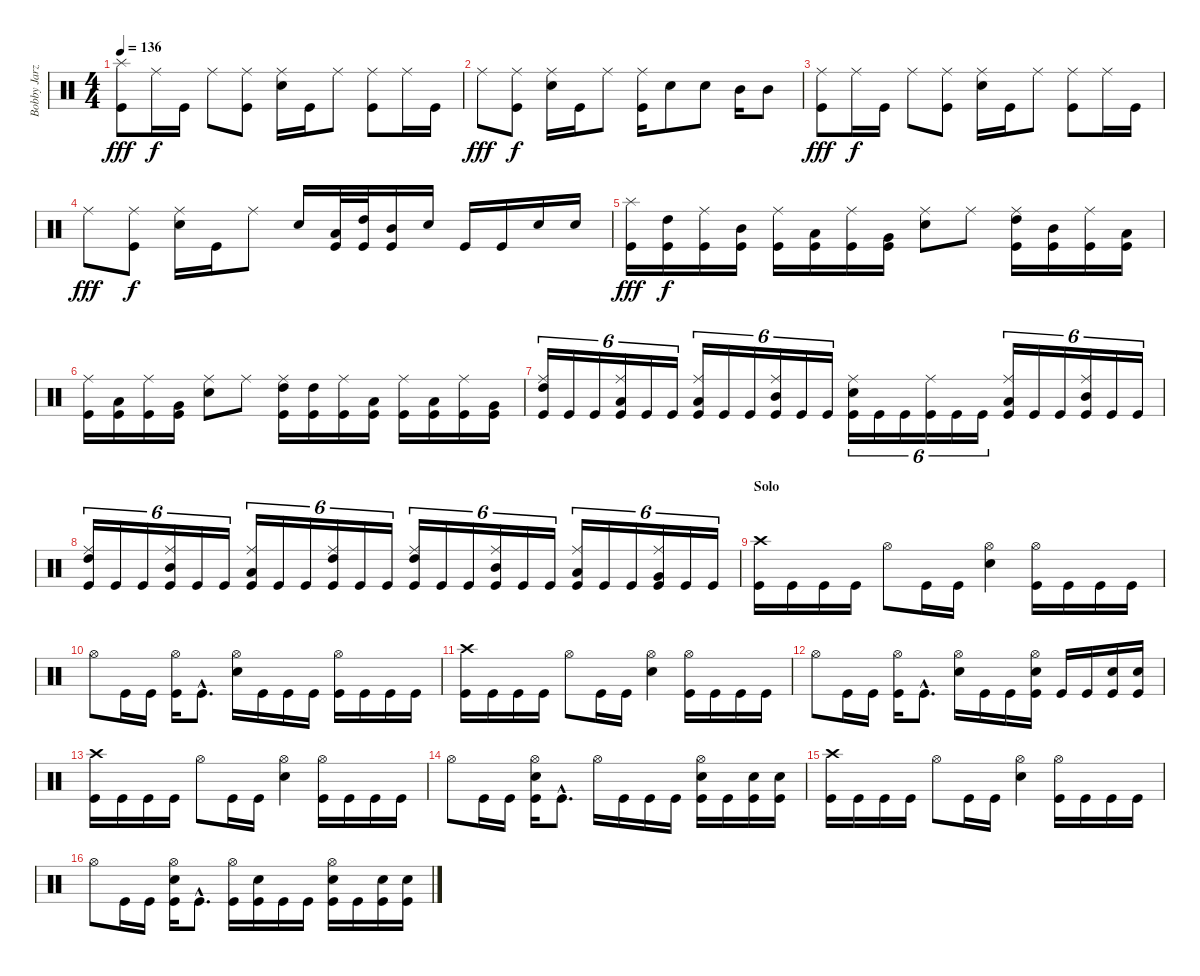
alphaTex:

\track ("Bobby Jarzombek" "Bobby Jarz") {instrument percussion}
\staff {score}
\articulation defaults
\ts (4 4)
\tempo 136
\clef neutral
\ks c
("Splash (hit)" "Kick (hit)").8{dy fff} "Ride (middle)".16{dy f} "Kick (hit)".16 "Ride (middle)".8 ("Ride (middle)" "Kick (hit)").8 ("Ride (middle)" "Electric Snare (hit)").16 "Kick (hit)".16 "Ride (middle)".8 ("Ride (middle)" "Kick (hit)").8 "Ride (middle)".16 "Kick (hit)".16 |
"Ride (middle)".8{dy fff} ("Ride (middle)" "Kick (hit)").8{dy f} ("Ride (middle)" "Electric Snare (hit)").16 "Kick (hit)".16 "Ride (middle)".8 ("Ride (middle)" "Kick (hit)").16 "Electric Snare (hit)".8 "Electric Snare (hit)".8 "Mid Tom (hit)".16 "Mid Tom (hit)".8 |
("Ride (middle)" "Kick (hit)").8{dy fff} "Ride (middle)".16{dy f} "Kick (hit)".16 "Ride (middle)".8 ("Ride (middle)" "Kick (hit)").8 ("Ride (middle)" "Electric Snare (hit)").16 "Kick (hit)".16 "Ride (middle)".8 ("Ride (middle)" "Kick (hit)").8 "Ride (middle)".16 "Kick (hit)".16 |
"Ride (middle)".8{dy fff} ("Ride (middle)" "Kick (hit)").8{dy f} ("Ride (middle)" "Electric Snare (hit)").16 "Kick (hit)".16 "Ride (middle)".8 "Electric Snare (hit)".16 ("Low Tom (hit)" "Kick (hit)").32 ("High Tom (hit)" "Kick (hit)").32 ("Mid Tom (hit)" "Kick (hit)").16 "Electric Snare (hit)".16 "Kick (hit)".16 "Kick (hit)".16 "Electric Snare (hit)".16 "Electric Snare (hit)".16 |
("Splash (hit)" "Kick (hit)").16{dy fff} ("High Tom (hit)" "Kick (hit)").16{dy f} ("Ride (middle)" "Kick (hit)").16 ("Mid Tom (hit)" "Kick (hit)").16 ("Ride (middle)" "Kick (hit)").16 ("Low Tom (hit)" "Kick (hit)").16 ("Ride (middle)" "Kick (hit)").16 ("Very Low Tom (hit)" "Kick (hit)").16 ("Ride (middle)" "Electric Snare (hit)").8 "Ride (middle)".8 ("Ride (middle)" "High Tom (hit)" "Kick (hit)").16 ("Mid Tom (hit)" "Kick (hit)").16 ("Ride (middle)" "Kick (hit)").16 ("Low Tom (hit)" "Kick (hit)").16 |
("Ride (middle)" "Kick (hit)").16 ("Low Tom (hit)" "Kick (hit)").16 ("Ride (middle)" "Kick (hit)").16 ("Very Low Tom (hit)" "Kick (hit)").16 ("Ride (middle)" "Electric Snare (hit)").8 "Ride (middle)".8 ("Ride (middle)" "High Tom (hit)" "Kick (hit)").16 ("High Tom (hit)" "Kick (hit)").16 ("Ride (middle)" "Kick (hit)").16 ("Low Tom (hit)" "Kick (hit)").16 ("Ride (middle)" "Kick (hit)").16 ("Low Tom (hit)" "Kick (hit)").16 ("Ride (middle)" "Kick (hit)").16 ("Very Low Tom (hit)" "Kick (hit)").16 |
("Ride (middle)" "High Tom (hit)" "Kick (hit)").16{tu (6 4)} "Kick (hit)".16{tu (6 4)} "Kick (hit)".16{tu (6 4)} ("Ride (middle)" "Low Tom (hit)" "Kick (hit)").16{tu (6 4)} "Kick (hit)".16{tu (6 4)} "Kick (hit)".16{tu (6 4)} ("Ride (middle)" "Low Tom (hit)" "Kick (hit)").16{tu (6 4)} "Kick (hit)".16{tu (6 4)} "Kick (hit)".16{tu (6 4)} ("Ride (middle)" "Mid Tom (hit)" "Kick (hit)").16{tu (6 4)} "Kick (hit)".16{tu (6 4)} "Kick (hit)".16{tu (6 4)} ("Ride (middle)" "Electric Snare (hit)" "Kick (hit)").16{tu (6 4)} "Kick (hit)".16{tu (6 4)} "Kick (hit)".16{tu (6 4)} ("Ride (middle)" "Kick (hit)").16{tu (6 4)} "Kick (hit)".16{tu (6 4)} "Kick (hit)".16{tu (6 4)} ("Ride (middle)" "Low Tom (hit)" "Kick (hit)").16{tu (6 4)} "Kick (hit)".16{tu (6 4)} "Kick (hit)".16{tu (6 4)} ("Ride (middle)" "Mid Tom (hit)" "Kick (hit)").16{tu (6 4)} "Kick (hit)".16{tu (6 4)} "Kick (hit)".16{tu (6 4)} |
("Ride (middle)" "High Tom (hit)" "Kick (hit)").16{tu (6 4)} "Kick (hit)".16{tu (6 4)} "Kick (hit)".16{tu (6 4)} ("Ride (middle)" "Mid Tom (hit)" "Kick (hit)").16{tu (6 4)} "Kick (hit)".16{tu (6 4)} "Kick (hit)".16{tu (6 4)} ("Ride (middle)" "Low Tom (hit)" "Kick (hit)").16{tu (6 4)} "Kick (hit)".16{tu (6 4)} "Kick (hit)".16{tu (6 4)} ("Ride (middle)" "High Tom (hit)" "Kick (hit)").16{tu (6 4)} "Kick (hit)".16{tu (6 4)} "Kick (hit)".16{tu (6 4)} ("Ride (middle)" "High Tom (hit)" "Kick (hit)").16{tu (6 4)} "Kick (hit)".16{tu (6 4)} "Kick (hit)".16{tu (6 4)} ("Ride (middle)" "Mid Tom (hit)" "Kick (hit)").16{tu (6 4)} "Kick (hit)".16{tu (6 4)} "Kick (hit)".16{tu (6 4)} ("Ride (middle)" "Low Tom (hit)" "Kick (hit)").16{tu (6 4)} "Kick (hit)".16{tu (6 4)} "Kick (hit)".16{tu (6 4)} ("Ride (middle)" "Very Low Tom (hit)" "Kick (hit)").16{tu (6 4)} "Kick (hit)".16{tu (6 4)} "Kick (hit)".16{tu (6 4)} |
\section ("" "Solo")
("Crash high (hit)" "Kick (hit)").16 "Kick (hit)".16 "Kick (hit)".16 "Kick (hit)".16 "Hi-Hat (open)".8 "Kick (hit)".16 "Kick (hit)".16 ("Hi-Hat (open)" "Electric Snare (hit)").4 ("Hi-Hat (open)" "Kick (hit)").16 "Kick (hit)".16 "Kick (hit)".16 "Kick (hit)".16 |
"Hi-Hat (open)".8 "Kick (hit)".16 "Kick (hit)".16 ("Hi-Hat (open)" "Kick (hit)").16 "Kick (hit)"{hac}.8{d} ("Hi-Hat (open)" "Electric Snare (hit)").16 "Kick (hit)".16 "Kick (hit)".16 "Kick (hit)".16 ("Hi-Hat (open)" "Kick (hit)").16 "Kick (hit)".16 "Kick (hit)".16 "Kick (hit)".16 |
("Crash high (hit)" "Kick (hit)").16 "Kick (hit)".16 "Kick (hit)".16 "Kick (hit)".16 "Hi-Hat (open)".8 "Kick (hit)".16 "Kick (hit)".16 ("Hi-Hat (open)" "Electric Snare (hit)").4 ("Hi-Hat (open)" "Kick (hit)").16 "Kick (hit)".16 "Kick (hit)".16 "Kick (hit)".16 |
"Hi-Hat (open)".8 "Kick (hit)".16 "Kick (hit)".16 ("Hi-Hat (open)" "Kick (hit)").16 "Kick (hit)"{hac}.8{d} ("Hi-Hat (open)" "Electric Snare (hit)").16 "Kick (hit)".16 "Kick (hit)".16 ("Hi-Hat (open)" "Electric Snare (hit)" "Kick (hit)").16 "Kick (hit)".16 "Kick (hit)".16 ("Electric Snare (hit)" "Kick (hit)").16 ("Electric Snare (hit)" "Kick (hit)").16 |
("Crash high (hit)" "Kick (hit)").16 "Kick (hit)".16 "Kick (hit)".16 "Kick (hit)".16 "Hi-Hat (open)".8 "Kick (hit)".16 "Kick (hit)".16 ("Hi-Hat (open)" "Electric Snare (hit)").4 ("Hi-Hat (open)" "Kick (hit)").16 "Kick (hit)".16 "Kick (hit)".16 "Kick (hit)".16 |
"Hi-Hat (open)".8 "Kick (hit)".16 "Kick (hit)".16 ("Hi-Hat (open)" "Electric Snare (hit)" "Kick (hit)").16 "Kick (hit)"{hac}.8{d} "Hi-Hat (open)".16 "Kick (hit)".16 "Kick (hit)".16 "Kick (hit)".16 ("Hi-Hat (open)" "Electric Snare (hit)" "Kick (hit)").16 "Kick (hit)".16 ("Electric Snare (hit)" "Kick (hit)").16 ("Electric Snare (hit)" "Kick (hit)").16 |
("Crash high (hit)" "Kick (hit)").16 "Kick (hit)".16 "Kick (hit)".16 "Kick (hit)".16 "Hi-Hat (open)".8 "Kick (hit)".16 "Kick (hit)".16 ("Hi-Hat (open)" "Electric Snare (hit)").4 ("Hi-Hat (open)" "Kick (hit)").16 "Kick (hit)".16 "Kick (hit)".16 "Kick (hit)".16 |
"Hi-Hat (open)".8 "Kick (hit)".16 "Kick (hit)".16 ("Hi-Hat (open)" "Electric Snare (hit)" "Kick (hit)").16 "Kick (hit)"{hac}.8{d} ("Hi-Hat (open)" "Kick (hit)").16 ("Electric Snare (hit)" "Kick (hit)").16 "Kick (hit)".16 "Kick (hit)".16 ("Hi-Hat (open)" "Electric Snare (hit)" "Kick (hit)").16 "Kick (hit)".16 ("Electric Snare (hit)" "Kick (hit)").16 ("Electric Snare (hit)" "Kick (hit)").16
